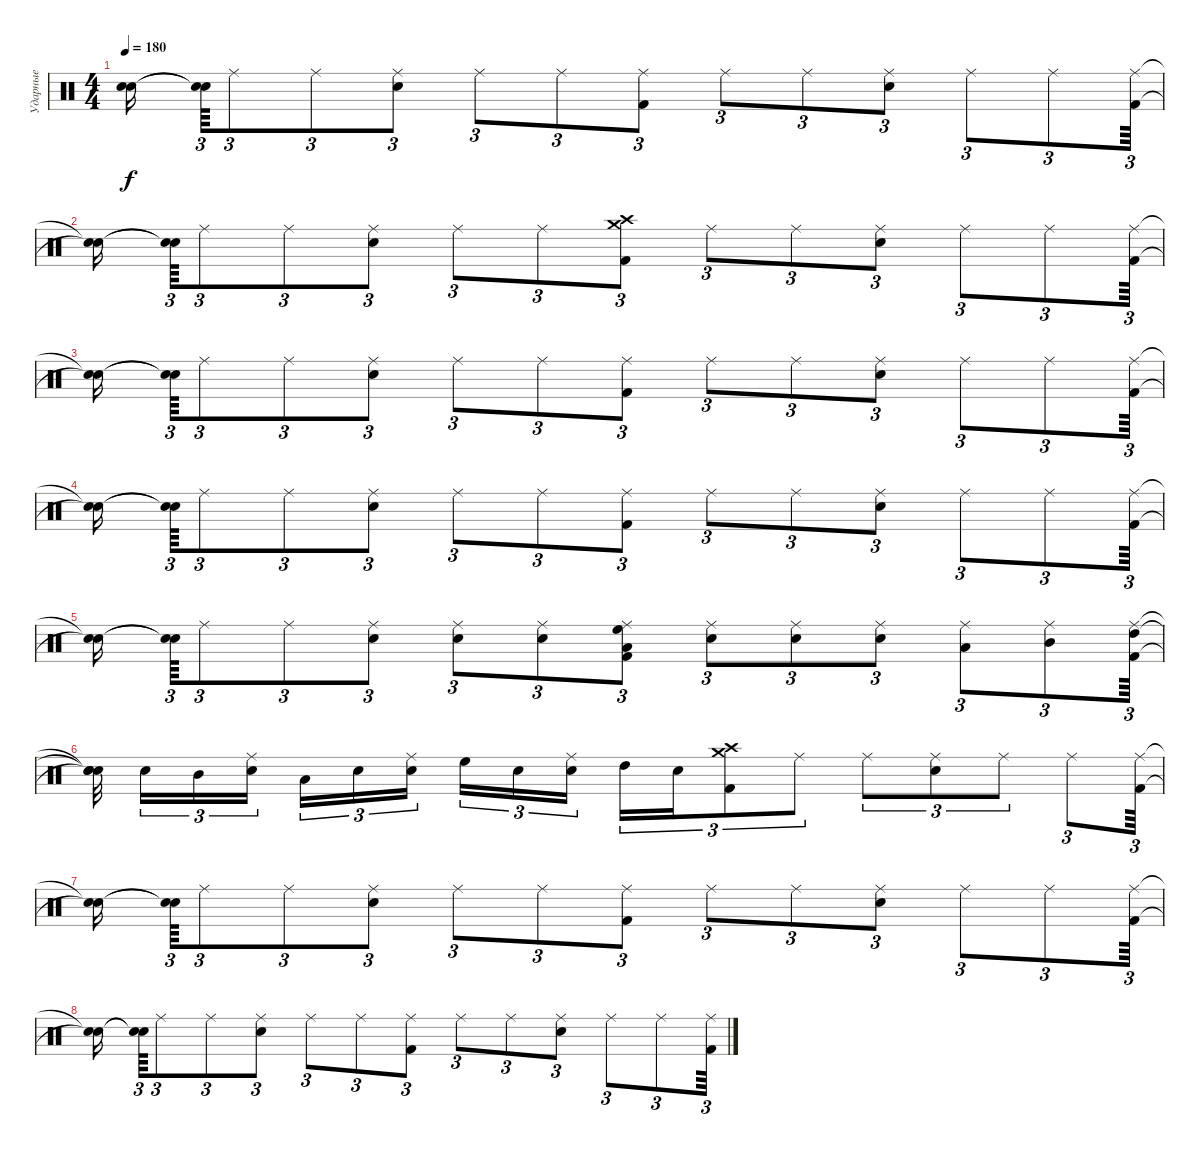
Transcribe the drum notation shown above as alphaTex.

\track ("Ударные" "Ударные") {instrument percussion}
\staff {score}
\articulation defaults
\ts (4 4)
\tempo 180
\clef neutral
\ks c
("Snare (hit)"{t} "Snare (hit)"{t}).16{dy f} ("Snare (hit)"{t} "Snare (hit)"{t}).64{tu (3 2)} "Ride (middle)".8{tu (3 2)} "Ride (middle)".8{tu (3 2)} ("Ride (middle)" "Snare (hit) 2").8{tu (3 2)} "Ride (middle)".8{tu (3 2)} "Ride (middle)".8{tu (3 2)} ("Ride (middle)" "Kick (hit) 2").8{tu (3 2)} "Ride (middle)".8{tu (3 2)} "Ride (middle)".8{tu (3 2)} ("Ride (middle)" "Snare (hit) 2").8{tu (3 2)} "Ride (middle)".8{tu (3 2)} "Ride (middle)".8{tu (3 2)} ("Ride (middle)" "Kick (hit) 2").64{tu (3 2)} |
("Snare (hit)"{t} "Snare (hit)"{t}).16 ("Snare (hit)"{t} "Snare (hit)"{t}).64{tu (3 2)} "Ride (middle)".8{tu (3 2)} "Ride (middle)".8{tu (3 2)} ("Ride (middle)" "Snare (hit) 2").8{tu (3 2)} "Ride (middle)".8{tu (3 2)} "Ride (middle)".8{tu (3 2)} ("Crash high (hit)" "Crash medium (hit)" "Kick (hit) 2").8{tu (3 2)} "Ride (middle)".8{tu (3 2)} "Ride (middle)".8{tu (3 2)} ("Ride (middle)" "Snare (hit) 2").8{tu (3 2)} "Ride (middle)".8{tu (3 2)} "Ride (middle)".8{tu (3 2)} ("Ride (middle)" "Kick (hit) 2").64{tu (3 2)} |
("Snare (hit)"{t} "Snare (hit)"{t}).16 ("Snare (hit)"{t} "Snare (hit)"{t}).64{tu (3 2)} "Ride (middle)".8{tu (3 2)} "Ride (middle)".8{tu (3 2)} ("Ride (middle)" "Snare (hit) 2").8{tu (3 2)} "Ride (middle)".8{tu (3 2)} "Ride (middle)".8{tu (3 2)} ("Ride (middle)" "Kick (hit) 2").8{tu (3 2)} "Ride (middle)".8{tu (3 2)} "Ride (middle)".8{tu (3 2)} ("Ride (middle)" "Snare (hit) 2").8{tu (3 2)} "Ride (middle)".8{tu (3 2)} "Ride (middle)".8{tu (3 2)} ("Ride (middle)" "Kick (hit) 2").64{tu (3 2)} |
("Snare (hit)"{t} "Snare (hit)"{t}).16 ("Snare (hit)"{t} "Snare (hit)"{t}).64{tu (3 2)} "Ride (middle)".8{tu (3 2)} "Ride (middle)".8{tu (3 2)} ("Ride (middle)" "Snare (hit) 2").8{tu (3 2)} "Ride (middle)".8{tu (3 2)} "Ride (middle)".8{tu (3 2)} ("Ride (middle)" "Kick (hit) 2").8{tu (3 2)} "Ride (middle)".8{tu (3 2)} "Ride (middle)".8{tu (3 2)} ("Ride (middle)" "Snare (hit) 2").8{tu (3 2)} "Ride (middle)".8{tu (3 2)} "Ride (middle)".8{tu (3 2)} ("Ride (middle)" "Kick (hit) 2").64{tu (3 2)} |
("Snare (hit)"{t} "Snare (hit)"{t}).16 ("Snare (hit)"{t} "Snare (hit)"{t}).64{tu (3 2)} "Ride (middle)".8{tu (3 2)} "Ride (middle)".8{tu (3 2)} ("Ride (middle)" "Snare (hit) 2").8{tu (3 2)} ("Ride (middle)" "Snare (hit) 2").8{tu (3 2)} ("Ride (middle)" "Snare (hit) 2").8{tu (3 2)} ("Ride (middle)" "High Floor Tom (hit)" "Low Tom (hit)" "Kick (hit) 2").8{tu (3 2)} ("Ride (middle)" "Snare (hit) 2").8{tu (3 2)} ("Ride (middle)" "Snare (hit) 2").8{tu (3 2)} ("Ride (middle)" "Snare (hit) 2").8{tu (3 2)} ("Ride (middle)" "Low Floor Tom (hit)").8{tu (3 2)} ("Ride (middle)" "Mid Tom (hit)").8{tu (3 2)} ("Ride (middle)" "High Tom (hit)" "Kick (hit) 2").64{tu (3 2)} |
("Snare (hit)"{t} "Snare (hit)"{t} "Snare (hit)"{t}).32 "Snare (hit) 2".16{tu (3 2)} "Mid Tom (hit)".16{tu (3 2)} ("Ride (middle)" "Snare (hit) 2").16{tu (3 2)} "Low Tom (hit)".16{tu (3 2)} "Snare (hit) 2".16{tu (3 2)} ("Ride (middle)" "Snare (hit) 2").16{tu (3 2)} "High Floor Tom (hit)".16{tu (3 2)} "Snare (hit) 2".16{tu (3 2)} ("Ride (middle)" "Snare (hit) 2").16{tu (3 2)} "High Tom (hit)".16{tu (3 2)} "Snare (hit) 2".16{tu (3 2)} ("Crash high (hit)" "Crash medium (hit)" "Kick (hit) 2").8{tu (3 2)} "Ride (middle)".8{tu (3 2)} "Ride (middle)".8{tu (3 2)} ("Ride (middle)" "Snare (hit) 2").8{tu (3 2)} "Ride (middle)".8{tu (3 2)} "Ride (middle)".8{tu (3 2)} ("Ride (middle)" "Kick (hit) 2").64{tu (3 2)} |
("Snare (hit)"{t} "Snare (hit)"{t}).16 ("Snare (hit)"{t} "Snare (hit)"{t}).64{tu (3 2)} "Ride (middle)".8{tu (3 2)} "Ride (middle)".8{tu (3 2)} ("Ride (middle)" "Snare (hit) 2").8{tu (3 2)} "Ride (middle)".8{tu (3 2)} "Ride (middle)".8{tu (3 2)} ("Ride (middle)" "Kick (hit) 2").8{tu (3 2)} "Ride (middle)".8{tu (3 2)} "Ride (middle)".8{tu (3 2)} ("Ride (middle)" "Snare (hit) 2").8{tu (3 2)} "Ride (middle)".8{tu (3 2)} "Ride (middle)".8{tu (3 2)} ("Ride (middle)" "Kick (hit) 2").64{tu (3 2)} |
("Snare (hit)"{t} "Snare (hit)"{t}).16 ("Snare (hit)"{t} "Snare (hit)"{t}).64{tu (3 2)} "Ride (middle)".8{tu (3 2)} "Ride (middle)".8{tu (3 2)} ("Ride (middle)" "Snare (hit) 2").8{tu (3 2)} "Ride (middle)".8{tu (3 2)} "Ride (middle)".8{tu (3 2)} ("Ride (middle)" "Kick (hit) 2").8{tu (3 2)} "Ride (middle)".8{tu (3 2)} "Ride (middle)".8{tu (3 2)} ("Ride (middle)" "Snare (hit) 2").8{tu (3 2)} "Ride (middle)".8{tu (3 2)} "Ride (middle)".8{tu (3 2)} ("Ride (middle)" "Kick (hit) 2").64{tu (3 2)}
